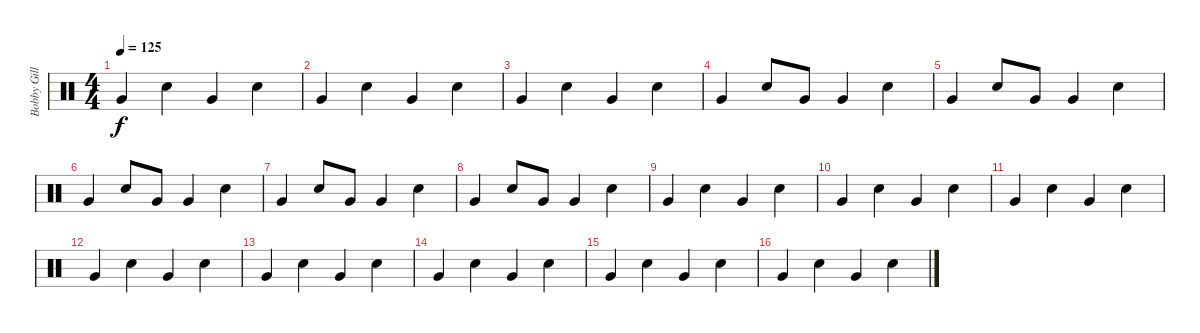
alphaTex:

\track ("Bobby Gillespie" "Bobby Gill") {instrument percussion}
\staff {score}
\articulation defaults
\ts (4 4)
\tempo 125
\clef neutral
\ks c "Very Low Tom (hit)".4{dy f} "Electric Snare (hit)".4 "Very Low Tom (hit)".4 "Electric Snare (hit)".4
|
"Very Low Tom (hit)".4 "Electric Snare (hit)".4 "Very Low Tom (hit)".4 "Electric Snare (hit)".4 |
"Very Low Tom (hit)".4 "Electric Snare (hit)".4 "Very Low Tom (hit)".4 "Electric Snare (hit)".4 |
"Very Low Tom (hit)".4 "Electric Snare (hit)".8 "Very Low Tom (hit)".8 "Very Low Tom (hit)".4 "Electric Snare (hit)".4 |
"Very Low Tom (hit)".4 "Electric Snare (hit)".8 "Very Low Tom (hit)".8 "Very Low Tom (hit)".4 "Electric Snare (hit)".4 |
"Very Low Tom (hit)".4 "Electric Snare (hit)".8 "Very Low Tom (hit)".8 "Very Low Tom (hit)".4 "Electric Snare (hit)".4 |
"Very Low Tom (hit)".4 "Electric Snare (hit)".8 "Very Low Tom (hit)".8 "Very Low Tom (hit)".4 "Electric Snare (hit)".4 |
"Very Low Tom (hit)".4 "Electric Snare (hit)".8 "Very Low Tom (hit)".8 "Very Low Tom (hit)".4 "Electric Snare (hit)".4 |
"Very Low Tom (hit)".4 "Electric Snare (hit)".4 "Very Low Tom (hit)".4 "Electric Snare (hit)".4 |
"Very Low Tom (hit)".4 "Electric Snare (hit)".4 "Very Low Tom (hit)".4 "Electric Snare (hit)".4 |
"Very Low Tom (hit)".4 "Electric Snare (hit)".4 "Very Low Tom (hit)".4 "Electric Snare (hit)".4 |
"Very Low Tom (hit)".4 "Electric Snare (hit)".4 "Very Low Tom (hit)".4 "Electric Snare (hit)".4 |
"Very Low Tom (hit)".4 "Electric Snare (hit)".4 "Very Low Tom (hit)".4 "Electric Snare (hit)".4 |
"Very Low Tom (hit)".4 "Electric Snare (hit)".4 "Very Low Tom (hit)".4 "Electric Snare (hit)".4 |
"Very Low Tom (hit)".4 "Electric Snare (hit)".4 "Very Low Tom (hit)".4 "Electric Snare (hit)".4 |
"Very Low Tom (hit)".4 "Electric Snare (hit)".4 "Very Low Tom (hit)".4 "Electric Snare (hit)".4
